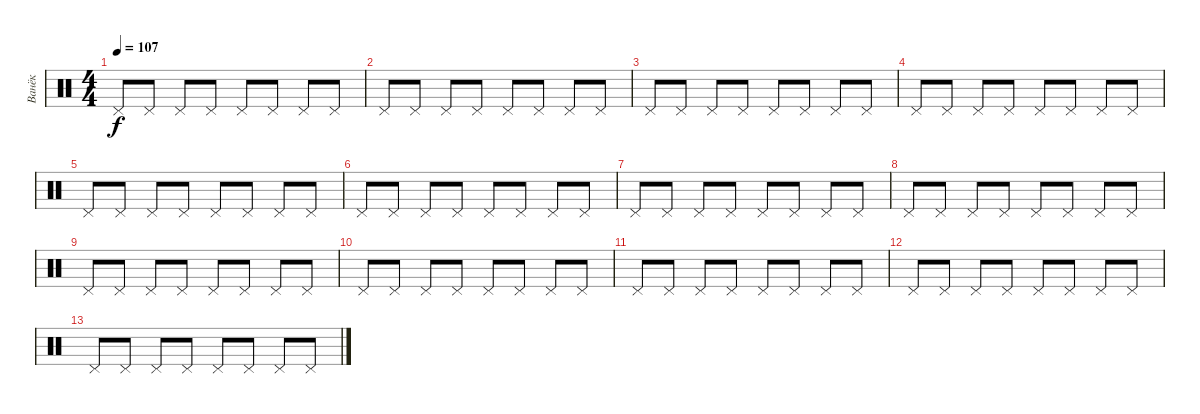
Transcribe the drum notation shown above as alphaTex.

\track ("Ванёк" "Ванёк") {instrument percussion}
\staff {score}
\articulation defaults
\ts (4 4)
\tempo 107
\clef neutral
\ks c "Pedal Hi-Hat (hit)".8{dy f} "Pedal Hi-Hat (hit)".8 "Pedal Hi-Hat (hit)".8 "Pedal Hi-Hat (hit)".8 "Pedal Hi-Hat (hit)".8 "Pedal Hi-Hat (hit)".8 "Pedal Hi-Hat (hit)".8 "Pedal Hi-Hat (hit)".8
|
"Pedal Hi-Hat (hit)".8 "Pedal Hi-Hat (hit)".8 "Pedal Hi-Hat (hit)".8 "Pedal Hi-Hat (hit)".8 "Pedal Hi-Hat (hit)".8 "Pedal Hi-Hat (hit)".8 "Pedal Hi-Hat (hit)".8 "Pedal Hi-Hat (hit)".8 |
"Pedal Hi-Hat (hit)".8 "Pedal Hi-Hat (hit)".8 "Pedal Hi-Hat (hit)".8 "Pedal Hi-Hat (hit)".8 "Pedal Hi-Hat (hit)".8 "Pedal Hi-Hat (hit)".8 "Pedal Hi-Hat (hit)".8 "Pedal Hi-Hat (hit)".8 |
"Pedal Hi-Hat (hit)".8 "Pedal Hi-Hat (hit)".8 "Pedal Hi-Hat (hit)".8 "Pedal Hi-Hat (hit)".8 "Pedal Hi-Hat (hit)".8 "Pedal Hi-Hat (hit)".8 "Pedal Hi-Hat (hit)".8 "Pedal Hi-Hat (hit)".8 |
"Pedal Hi-Hat (hit)".8 "Pedal Hi-Hat (hit)".8 "Pedal Hi-Hat (hit)".8 "Pedal Hi-Hat (hit)".8 "Pedal Hi-Hat (hit)".8 "Pedal Hi-Hat (hit)".8 "Pedal Hi-Hat (hit)".8 "Pedal Hi-Hat (hit)".8 |
"Pedal Hi-Hat (hit)".8 "Pedal Hi-Hat (hit)".8 "Pedal Hi-Hat (hit)".8 "Pedal Hi-Hat (hit)".8 "Pedal Hi-Hat (hit)".8 "Pedal Hi-Hat (hit)".8 "Pedal Hi-Hat (hit)".8 "Pedal Hi-Hat (hit)".8 |
"Pedal Hi-Hat (hit)".8 "Pedal Hi-Hat (hit)".8 "Pedal Hi-Hat (hit)".8 "Pedal Hi-Hat (hit)".8 "Pedal Hi-Hat (hit)".8 "Pedal Hi-Hat (hit)".8 "Pedal Hi-Hat (hit)".8 "Pedal Hi-Hat (hit)".8 |
"Pedal Hi-Hat (hit)".8 "Pedal Hi-Hat (hit)".8 "Pedal Hi-Hat (hit)".8 "Pedal Hi-Hat (hit)".8 "Pedal Hi-Hat (hit)".8 "Pedal Hi-Hat (hit)".8 "Pedal Hi-Hat (hit)".8 "Pedal Hi-Hat (hit)".8 |
"Pedal Hi-Hat (hit)".8 "Pedal Hi-Hat (hit)".8 "Pedal Hi-Hat (hit)".8 "Pedal Hi-Hat (hit)".8 "Pedal Hi-Hat (hit)".8 "Pedal Hi-Hat (hit)".8 "Pedal Hi-Hat (hit)".8 "Pedal Hi-Hat (hit)".8 |
"Pedal Hi-Hat (hit)".8 "Pedal Hi-Hat (hit)".8 "Pedal Hi-Hat (hit)".8 "Pedal Hi-Hat (hit)".8 "Pedal Hi-Hat (hit)".8 "Pedal Hi-Hat (hit)".8 "Pedal Hi-Hat (hit)".8 "Pedal Hi-Hat (hit)".8 |
"Pedal Hi-Hat (hit)".8 "Pedal Hi-Hat (hit)".8 "Pedal Hi-Hat (hit)".8 "Pedal Hi-Hat (hit)".8 "Pedal Hi-Hat (hit)".8 "Pedal Hi-Hat (hit)".8 "Pedal Hi-Hat (hit)".8 "Pedal Hi-Hat (hit)".8 |
"Pedal Hi-Hat (hit)".8 "Pedal Hi-Hat (hit)".8 "Pedal Hi-Hat (hit)".8 "Pedal Hi-Hat (hit)".8 "Pedal Hi-Hat (hit)".8 "Pedal Hi-Hat (hit)".8 "Pedal Hi-Hat (hit)".8 "Pedal Hi-Hat (hit)".8 |
"Pedal Hi-Hat (hit)".8 "Pedal Hi-Hat (hit)".8 "Pedal Hi-Hat (hit)".8 "Pedal Hi-Hat (hit)".8 "Pedal Hi-Hat (hit)".8 "Pedal Hi-Hat (hit)".8 "Pedal Hi-Hat (hit)".8 "Pedal Hi-Hat (hit)".8
